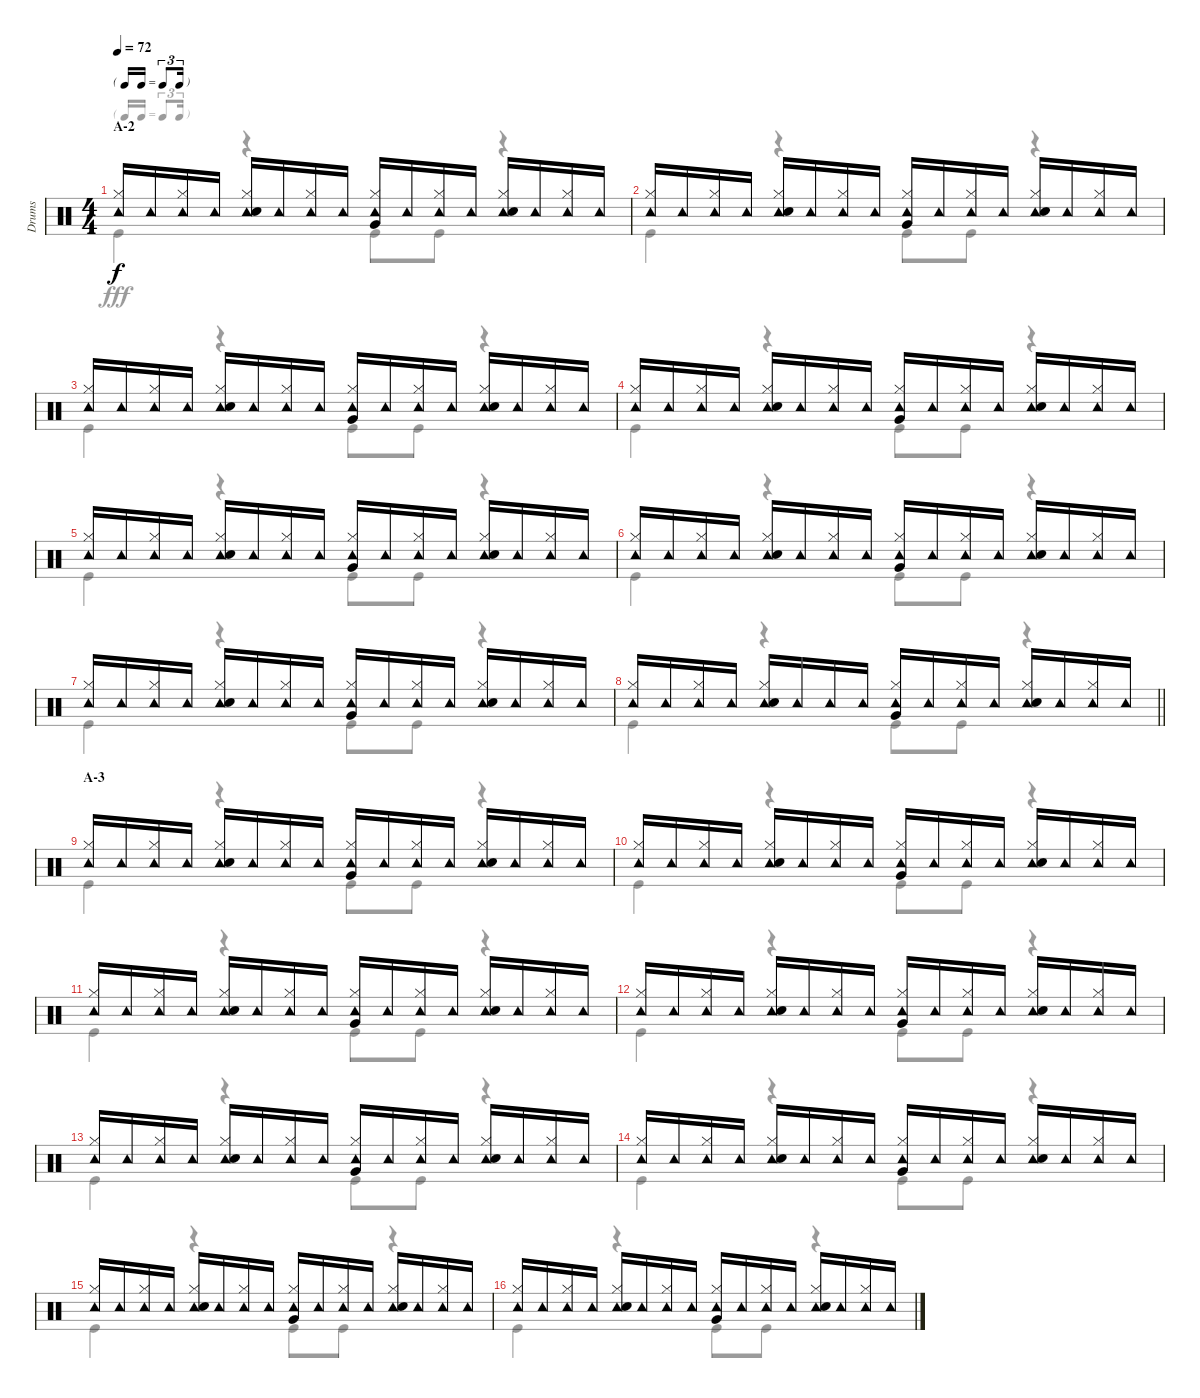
\track ("Drums" "Drums") {instrument percussion}
\staff {score}
\articulation defaults
\voice
\ts (4 4)
\tf triplet16th
\section ("" "A-2")
\tempo 72
\clef neutral
\ks c
("Tambourine (hit)" "Hi-Hat (closed)").16{dy f} "Tambourine (hit)".16 ("Tambourine (hit)" "Hi-Hat (closed)").16 "Tambourine (hit)".16 ("Tambourine (hit)" "Hi-Hat (closed)" "Snare (hit) 2").16 "Tambourine (hit)".16 ("Tambourine (hit)" "Hi-Hat (closed)").16 "Tambourine (hit)".16 ("Tambourine (hit)" "Hi-Hat (closed)" "Very Low Tom (hit)").16 "Tambourine (hit)".16 ("Tambourine (hit)" "Hi-Hat (closed)").16 "Tambourine (hit)".16 ("Tambourine (hit)" "Hi-Hat (closed)" "Snare (hit) 2").16 "Tambourine (hit)".16 ("Tambourine (hit)" "Hi-Hat (closed)").16 "Tambourine (hit)".16 |
("Tambourine (hit)" "Hi-Hat (closed)").16 "Tambourine (hit)".16 ("Tambourine (hit)" "Hi-Hat (closed)").16 "Tambourine (hit)".16 ("Tambourine (hit)" "Hi-Hat (closed)" "Snare (hit) 2").16 "Tambourine (hit)".16 ("Tambourine (hit)" "Hi-Hat (closed)").16 "Tambourine (hit)".16 ("Tambourine (hit)" "Hi-Hat (closed)" "Very Low Tom (hit)").16 "Tambourine (hit)".16 ("Tambourine (hit)" "Hi-Hat (closed)").16 "Tambourine (hit)".16 ("Tambourine (hit)" "Hi-Hat (closed)" "Snare (hit) 2").16 "Tambourine (hit)".16 ("Tambourine (hit)" "Hi-Hat (closed)").16 "Tambourine (hit)".16 |
("Tambourine (hit)" "Hi-Hat (closed)").16 "Tambourine (hit)".16 ("Tambourine (hit)" "Hi-Hat (closed)").16 "Tambourine (hit)".16 ("Tambourine (hit)" "Hi-Hat (closed)" "Snare (hit) 2").16 "Tambourine (hit)".16 ("Tambourine (hit)" "Hi-Hat (closed)").16 "Tambourine (hit)".16 ("Tambourine (hit)" "Hi-Hat (closed)" "Very Low Tom (hit)").16 "Tambourine (hit)".16 ("Tambourine (hit)" "Hi-Hat (closed)").16 "Tambourine (hit)".16 ("Tambourine (hit)" "Hi-Hat (closed)" "Snare (hit) 2").16 "Tambourine (hit)".16 ("Tambourine (hit)" "Hi-Hat (closed)").16 "Tambourine (hit)".16 |
("Tambourine (hit)" "Hi-Hat (closed)").16 "Tambourine (hit)".16 ("Tambourine (hit)" "Hi-Hat (closed)").16 "Tambourine (hit)".16 ("Tambourine (hit)" "Hi-Hat (closed)" "Snare (hit) 2").16 "Tambourine (hit)".16 ("Tambourine (hit)" "Hi-Hat (closed)").16 "Tambourine (hit)".16 ("Tambourine (hit)" "Hi-Hat (closed)" "Very Low Tom (hit)").16 "Tambourine (hit)".16 ("Tambourine (hit)" "Hi-Hat (closed)").16 "Tambourine (hit)".16 ("Tambourine (hit)" "Hi-Hat (closed)" "Snare (hit) 2").16 "Tambourine (hit)".16 ("Tambourine (hit)" "Hi-Hat (closed)").16 "Tambourine (hit)".16 |
("Tambourine (hit)" "Hi-Hat (closed)").16 "Tambourine (hit)".16 ("Tambourine (hit)" "Hi-Hat (closed)").16 "Tambourine (hit)".16 ("Tambourine (hit)" "Hi-Hat (closed)" "Snare (hit) 2").16 "Tambourine (hit)".16 ("Tambourine (hit)" "Hi-Hat (closed)").16 "Tambourine (hit)".16 ("Tambourine (hit)" "Hi-Hat (closed)" "Very Low Tom (hit)").16 "Tambourine (hit)".16 ("Tambourine (hit)" "Hi-Hat (closed)").16 "Tambourine (hit)".16 ("Tambourine (hit)" "Hi-Hat (closed)" "Snare (hit) 2").16 "Tambourine (hit)".16 ("Tambourine (hit)" "Hi-Hat (closed)").16 "Tambourine (hit)".16 |
("Tambourine (hit)" "Hi-Hat (closed)").16 "Tambourine (hit)".16 ("Tambourine (hit)" "Hi-Hat (closed)").16 "Tambourine (hit)".16 ("Tambourine (hit)" "Hi-Hat (closed)" "Snare (hit) 2").16 "Tambourine (hit)".16 ("Tambourine (hit)" "Hi-Hat (closed)").16 "Tambourine (hit)".16 ("Tambourine (hit)" "Hi-Hat (closed)" "Very Low Tom (hit)").16 "Tambourine (hit)".16 ("Tambourine (hit)" "Hi-Hat (closed)").16 "Tambourine (hit)".16 ("Tambourine (hit)" "Hi-Hat (closed)" "Snare (hit) 2").16 "Tambourine (hit)".16 ("Tambourine (hit)" "Hi-Hat (closed)").16 "Tambourine (hit)".16 |
("Tambourine (hit)" "Hi-Hat (closed)").16 "Tambourine (hit)".16 ("Tambourine (hit)" "Hi-Hat (closed)").16 "Tambourine (hit)".16 ("Tambourine (hit)" "Hi-Hat (closed)" "Snare (hit) 2").16 "Tambourine (hit)".16 ("Tambourine (hit)" "Hi-Hat (closed)").16 "Tambourine (hit)".16 ("Tambourine (hit)" "Hi-Hat (closed)" "Very Low Tom (hit)").16 "Tambourine (hit)".16 ("Tambourine (hit)" "Hi-Hat (closed)").16 "Tambourine (hit)".16 ("Tambourine (hit)" "Hi-Hat (closed)" "Snare (hit) 2").16 "Tambourine (hit)".16 ("Tambourine (hit)" "Hi-Hat (closed)").16 "Tambourine (hit)".16 |
\barLineRight lightlight
("Tambourine (hit)" "Hi-Hat (closed)").16 "Tambourine (hit)".16 ("Tambourine (hit)" "Hi-Hat (closed)").16 "Tambourine (hit)".16 ("Tambourine (hit)" "Hi-Hat (closed)" "Snare (hit) 2").16 "Tambourine (hit)".16 "Tambourine (hit)".16 "Tambourine (hit)".16 ("Tambourine (hit)" "Hi-Hat (closed)" "Very Low Tom (hit)").16 "Tambourine (hit)".16 ("Tambourine (hit)" "Hi-Hat (closed)").16 "Tambourine (hit)".16 ("Tambourine (hit)" "Hi-Hat (closed)" "Snare (hit) 2").16 "Tambourine (hit)".16 ("Tambourine (hit)" "Hi-Hat (closed)").16 "Tambourine (hit)".16 |
\section ("" "A-3")
("Tambourine (hit)" "Hi-Hat (closed)").16 "Tambourine (hit)".16 ("Tambourine (hit)" "Hi-Hat (closed)").16 "Tambourine (hit)".16 ("Tambourine (hit)" "Hi-Hat (closed)" "Snare (hit) 2").16 "Tambourine (hit)".16 ("Tambourine (hit)" "Hi-Hat (closed)").16 "Tambourine (hit)".16 ("Tambourine (hit)" "Hi-Hat (closed)" "Very Low Tom (hit)").16 "Tambourine (hit)".16 ("Tambourine (hit)" "Hi-Hat (closed)").16 "Tambourine (hit)".16 ("Tambourine (hit)" "Hi-Hat (closed)" "Snare (hit) 2").16 "Tambourine (hit)".16 ("Tambourine (hit)" "Hi-Hat (closed)").16 "Tambourine (hit)".16 |
("Tambourine (hit)" "Hi-Hat (closed)").16 "Tambourine (hit)".16 ("Tambourine (hit)" "Hi-Hat (closed)").16 "Tambourine (hit)".16 ("Tambourine (hit)" "Hi-Hat (closed)" "Snare (hit) 2").16 "Tambourine (hit)".16 ("Tambourine (hit)" "Hi-Hat (closed)").16 "Tambourine (hit)".16 ("Tambourine (hit)" "Hi-Hat (closed)" "Very Low Tom (hit)").16 "Tambourine (hit)".16 ("Tambourine (hit)" "Hi-Hat (closed)").16 "Tambourine (hit)".16 ("Tambourine (hit)" "Hi-Hat (closed)" "Snare (hit) 2").16 "Tambourine (hit)".16 ("Tambourine (hit)" "Hi-Hat (closed)").16 "Tambourine (hit)".16 |
("Tambourine (hit)" "Hi-Hat (closed)").16 "Tambourine (hit)".16 ("Tambourine (hit)" "Hi-Hat (closed)").16 "Tambourine (hit)".16 ("Tambourine (hit)" "Hi-Hat (closed)" "Snare (hit) 2").16 "Tambourine (hit)".16 ("Tambourine (hit)" "Hi-Hat (closed)").16 "Tambourine (hit)".16 ("Tambourine (hit)" "Hi-Hat (closed)" "Very Low Tom (hit)").16 "Tambourine (hit)".16 ("Tambourine (hit)" "Hi-Hat (closed)").16 "Tambourine (hit)".16 ("Tambourine (hit)" "Hi-Hat (closed)" "Snare (hit) 2").16 "Tambourine (hit)".16 ("Tambourine (hit)" "Hi-Hat (closed)").16 "Tambourine (hit)".16 |
("Tambourine (hit)" "Hi-Hat (closed)").16 "Tambourine (hit)".16 ("Tambourine (hit)" "Hi-Hat (closed)").16 "Tambourine (hit)".16 ("Tambourine (hit)" "Hi-Hat (closed)" "Snare (hit) 2").16 "Tambourine (hit)".16 ("Tambourine (hit)" "Hi-Hat (closed)").16 "Tambourine (hit)".16 ("Tambourine (hit)" "Hi-Hat (closed)" "Very Low Tom (hit)").16 "Tambourine (hit)".16 ("Tambourine (hit)" "Hi-Hat (closed)").16 "Tambourine (hit)".16 ("Tambourine (hit)" "Hi-Hat (closed)" "Snare (hit) 2").16 "Tambourine (hit)".16 ("Tambourine (hit)" "Hi-Hat (closed)").16 "Tambourine (hit)".16 |
("Tambourine (hit)" "Hi-Hat (closed)").16 "Tambourine (hit)".16 ("Tambourine (hit)" "Hi-Hat (closed)").16 "Tambourine (hit)".16 ("Tambourine (hit)" "Hi-Hat (closed)" "Snare (hit) 2").16 "Tambourine (hit)".16 ("Tambourine (hit)" "Hi-Hat (closed)").16 "Tambourine (hit)".16 ("Tambourine (hit)" "Hi-Hat (closed)" "Very Low Tom (hit)").16 "Tambourine (hit)".16 ("Tambourine (hit)" "Hi-Hat (closed)").16 "Tambourine (hit)".16 ("Tambourine (hit)" "Hi-Hat (closed)" "Snare (hit) 2").16 "Tambourine (hit)".16 ("Tambourine (hit)" "Hi-Hat (closed)").16 "Tambourine (hit)".16 |
("Tambourine (hit)" "Hi-Hat (closed)").16 "Tambourine (hit)".16 ("Tambourine (hit)" "Hi-Hat (closed)").16 "Tambourine (hit)".16 ("Tambourine (hit)" "Hi-Hat (closed)" "Snare (hit) 2").16 "Tambourine (hit)".16 ("Tambourine (hit)" "Hi-Hat (closed)").16 "Tambourine (hit)".16 ("Tambourine (hit)" "Hi-Hat (closed)" "Very Low Tom (hit)").16 "Tambourine (hit)".16 ("Tambourine (hit)" "Hi-Hat (closed)").16 "Tambourine (hit)".16 ("Tambourine (hit)" "Hi-Hat (closed)" "Snare (hit) 2").16 "Tambourine (hit)".16 ("Tambourine (hit)" "Hi-Hat (closed)").16 "Tambourine (hit)".16 |
("Tambourine (hit)" "Hi-Hat (closed)").16 "Tambourine (hit)".16 ("Tambourine (hit)" "Hi-Hat (closed)").16 "Tambourine (hit)".16 ("Tambourine (hit)" "Hi-Hat (closed)" "Snare (hit) 2").16 "Tambourine (hit)".16 ("Tambourine (hit)" "Hi-Hat (closed)").16 "Tambourine (hit)".16 ("Tambourine (hit)" "Hi-Hat (closed)" "Very Low Tom (hit)").16 "Tambourine (hit)".16 ("Tambourine (hit)" "Hi-Hat (closed)").16 "Tambourine (hit)".16 ("Tambourine (hit)" "Hi-Hat (closed)" "Snare (hit) 2").16 "Tambourine (hit)".16 ("Tambourine (hit)" "Hi-Hat (closed)").16 "Tambourine (hit)".16 |
("Tambourine (hit)" "Hi-Hat (closed)").16 "Tambourine (hit)".16 ("Tambourine (hit)" "Hi-Hat (closed)").16 "Tambourine (hit)".16 ("Tambourine (hit)" "Hi-Hat (closed)" "Snare (hit) 2").16 "Tambourine (hit)".16 ("Tambourine (hit)" "Hi-Hat (closed)").16 "Tambourine (hit)".16 ("Tambourine (hit)" "Hi-Hat (closed)" "Very Low Tom (hit)").16 "Tambourine (hit)".16 ("Tambourine (hit)" "Hi-Hat (closed)").16 "Tambourine (hit)".16 ("Tambourine (hit)" "Hi-Hat (closed)" "Snare (hit) 2").16 "Tambourine (hit)".16 ("Tambourine (hit)" "Hi-Hat (closed)").16 "Tambourine (hit)".16
\voice
\clef neutral
\ottava regular
\simile none
\ks c "Kick (hit)".4{dy fff}
r.4 "Kick (hit)".8 "Kick (hit)".8 r.4 |
"Kick (hit)".4 r.4 "Kick (hit)".8 "Kick (hit)".8 r.4 |
"Kick (hit)".4 r.4 "Kick (hit)".8 "Kick (hit)".8 r.4 |
"Kick (hit)".4 r.4 "Kick (hit)".8 "Kick (hit)".8 r.4 |
"Kick (hit)".4 r.4 "Kick (hit)".8 "Kick (hit)".8 r.4 |
"Kick (hit)".4 r.4 "Kick (hit)".8 "Kick (hit)".8 r.4 |
"Kick (hit)".4 r.4 "Kick (hit)".8 "Kick (hit)".8 r.4 |
\barLineRight lightlight "Kick (hit)".4
r.4 "Kick (hit)".8 "Kick (hit)".8 r.4 |
"Kick (hit)".4 r.4 "Kick (hit)".8 "Kick (hit)".8 r.4 |
"Kick (hit)".4 r.4 "Kick (hit)".8 "Kick (hit)".8 r.4 |
"Kick (hit)".4 r.4 "Kick (hit)".8 "Kick (hit)".8 r.4 |
"Kick (hit)".4 r.4 "Kick (hit)".8 "Kick (hit)".8 r.4 |
"Kick (hit)".4 r.4 "Kick (hit)".8 "Kick (hit)".8 r.4 |
"Kick (hit)".4 r.4 "Kick (hit)".8 "Kick (hit)".8 r.4 |
"Kick (hit)".4 r.4 "Kick (hit)".8 "Kick (hit)".8 r.4 |
"Kick (hit)".4 r.4 "Kick (hit)".8 "Kick (hit)".8 r.4
